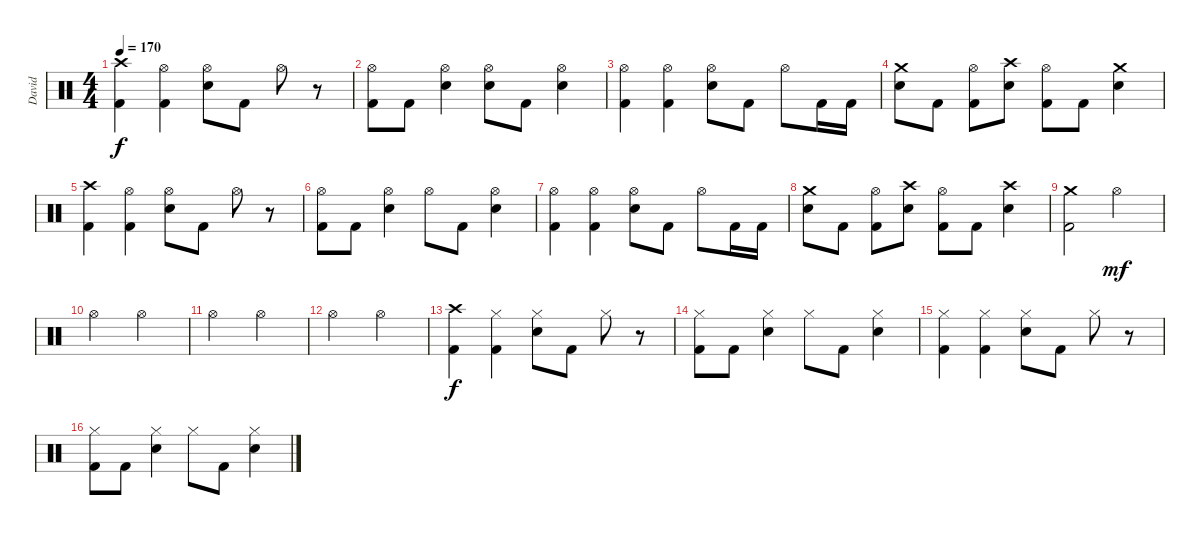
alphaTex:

\track ("David" "David") {instrument percussion}
\staff {score}
\articulation defaults
\ts (4 4)
\tempo 170
\clef neutral
\ks c
("Crash high (hit)" "Kick (hit) 2").4{dy f} ("Hi-Hat (open)" "Kick (hit) 2").4 ("Hi-Hat (open)" "Snare (hit) 2").8 "Kick (hit) 2".8 "Hi-Hat (open)".8 r.8 |
("Hi-Hat (open)" "Kick (hit) 2").8 "Kick (hit) 2".8 ("Hi-Hat (open)" "Snare (hit) 2").4 ("Hi-Hat (open)" "Snare (hit) 2").8 "Kick (hit) 2".8 ("Hi-Hat (open)" "Snare (hit) 2").4 |
("Hi-Hat (open)" "Kick (hit) 2").4 ("Hi-Hat (open)" "Kick (hit) 2").4 ("Hi-Hat (open)" "Snare (hit) 2").8 "Kick (hit) 2".8 "Hi-Hat (open)".8 "Kick (hit) 2".16 "Kick (hit) 2".16 |
("Crash medium (hit)" "Snare (hit) 2").8 "Kick (hit) 2".8 ("Hi-Hat (open)" "Kick (hit) 2").8 ("Crash high (hit)" "Snare (hit) 2").8 ("Hi-Hat (open)" "Kick (hit) 2").8 "Kick (hit) 2".8 ("Crash medium (hit)" "Snare (hit) 2").4 |
("Crash high (hit)" "Kick (hit) 2").4 ("Hi-Hat (open)" "Kick (hit) 2").4 ("Hi-Hat (open)" "Snare (hit) 2").8 "Kick (hit) 2".8 "Hi-Hat (open)".8 r.8 |
("Hi-Hat (open)" "Kick (hit) 2").8 "Kick (hit) 2".8 ("Hi-Hat (open)" "Snare (hit) 2").4 "Hi-Hat (open)".8 "Kick (hit) 2".8 ("Hi-Hat (open)" "Snare (hit) 2").4 |
("Hi-Hat (open)" "Kick (hit) 2").4 ("Hi-Hat (open)" "Kick (hit) 2").4 ("Hi-Hat (open)" "Snare (hit) 2").8 "Kick (hit) 2".8 "Hi-Hat (open)".8 "Kick (hit) 2".16 "Kick (hit) 2".16 |
("Crash medium (hit)" "Snare (hit) 2").8 "Kick (hit) 2".8 ("Hi-Hat (open)" "Kick (hit) 2").8 ("Crash high (hit)" "Snare (hit) 2").8 ("Hi-Hat (open)" "Kick (hit) 2").8 "Kick (hit) 2".8 ("Crash high (hit)" "Snare (hit) 2").4 |
("Crash medium (hit)" "Kick (hit) 2").2 "Hi-Hat (open)".2{dy mf} |
"Hi-Hat (open)".2 "Hi-Hat (open)".2 |
"Hi-Hat (open)".2 "Hi-Hat (open)".2 |
"Hi-Hat (open)".2 "Hi-Hat (open)".2 |
("Crash high (hit)" "Kick (hit) 2").4{dy f} ("Hi-Hat (closed)" "Kick (hit) 2").4 ("Hi-Hat (closed)" "Snare (hit) 2").8 "Kick (hit) 2".8 "Hi-Hat (closed)".8 r.8 |
("Hi-Hat (closed)" "Kick (hit) 2").8 "Kick (hit) 2".8 ("Hi-Hat (closed)" "Snare (hit) 2").4 "Hi-Hat (closed)".8 "Kick (hit) 2".8 ("Hi-Hat (closed)" "Snare (hit) 2").4 |
("Hi-Hat (closed)" "Kick (hit) 2").4 ("Hi-Hat (closed)" "Kick (hit) 2").4 ("Hi-Hat (closed)" "Snare (hit) 2").8 "Kick (hit) 2".8 "Hi-Hat (closed)".8 r.8 |
("Hi-Hat (closed)" "Kick (hit) 2").8 "Kick (hit) 2".8 ("Hi-Hat (closed)" "Snare (hit) 2").4 "Hi-Hat (closed)".8 "Kick (hit) 2".8 ("Hi-Hat (closed)" "Snare (hit) 2").4
